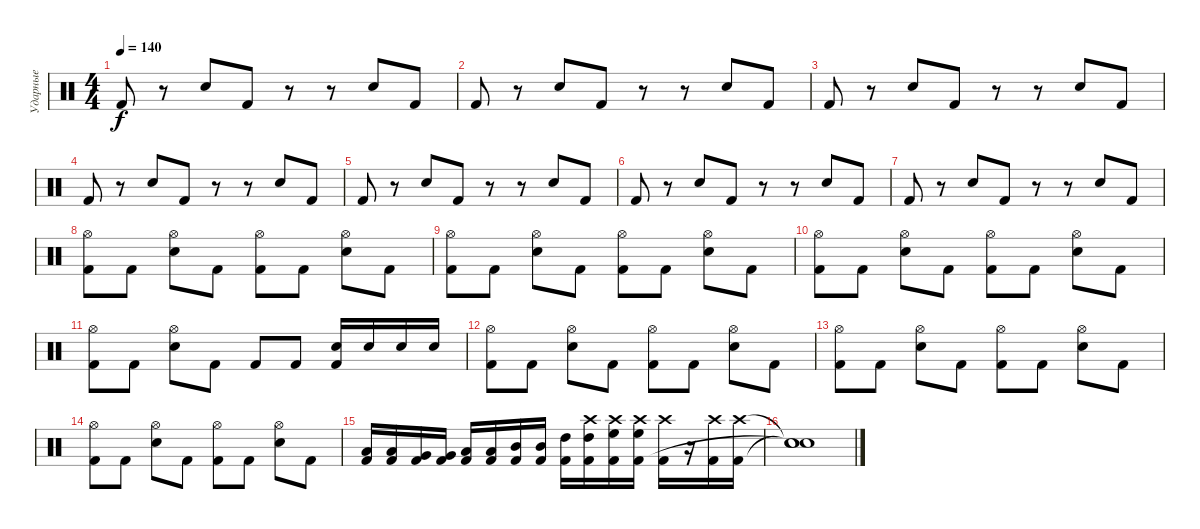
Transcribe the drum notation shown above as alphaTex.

\track ("Ударные" "Ударные") {instrument percussion}
\staff {score}
\articulation defaults
\ts (4 4)
\tempo 140
\clef neutral
\ks c "Kick (hit) 2".8{dy f}
r.8 "Electric Snare (hit)".8 "Kick (hit) 2".8 r.8 r.8 "Electric Snare (hit)".8 "Kick (hit) 2".8 |
"Kick (hit) 2".8 r.8 "Electric Snare (hit)".8 "Kick (hit) 2".8 r.8 r.8 "Electric Snare (hit)".8 "Kick (hit) 2".8 |
"Kick (hit) 2".8 r.8 "Electric Snare (hit)".8 "Kick (hit) 2".8 r.8 r.8 "Electric Snare (hit)".8 "Kick (hit) 2".8 |
"Kick (hit) 2".8 r.8 "Electric Snare (hit)".8 "Kick (hit) 2".8 r.8 r.8 "Electric Snare (hit)".8 "Kick (hit) 2".8 |
"Kick (hit) 2".8 r.8 "Electric Snare (hit)".8 "Kick (hit) 2".8 r.8 r.8 "Electric Snare (hit)".8 "Kick (hit) 2".8 |
"Kick (hit) 2".8 r.8 "Electric Snare (hit)".8 "Kick (hit) 2".8 r.8 r.8 "Electric Snare (hit)".8 "Kick (hit) 2".8 |
"Kick (hit) 2".8 r.8 "Electric Snare (hit)".8 "Kick (hit) 2".8 r.8 r.8 "Electric Snare (hit)".8 "Kick (hit) 2".8 |
("Kick (hit) 2" "Hi-Hat (open)").8 "Kick (hit) 2".8 ("Electric Snare (hit)" "Hi-Hat (open)").8 "Kick (hit) 2".8 ("Kick (hit) 2" "Hi-Hat (open)").8 "Kick (hit) 2".8 ("Electric Snare (hit)" "Hi-Hat (open)").8 "Kick (hit) 2".8 |
("Kick (hit) 2" "Hi-Hat (open)").8 "Kick (hit) 2".8 ("Electric Snare (hit)" "Hi-Hat (open)").8 "Kick (hit) 2".8 ("Kick (hit) 2" "Hi-Hat (open)").8 "Kick (hit) 2".8 ("Electric Snare (hit)" "Hi-Hat (open)").8 "Kick (hit) 2".8 |
("Kick (hit) 2" "Hi-Hat (open)").8 "Kick (hit) 2".8 ("Electric Snare (hit)" "Hi-Hat (open)").8 "Kick (hit) 2".8 ("Kick (hit) 2" "Hi-Hat (open)").8 "Kick (hit) 2".8 ("Electric Snare (hit)" "Hi-Hat (open)").8 "Kick (hit) 2".8 |
("Kick (hit) 2" "Hi-Hat (open)").8 "Kick (hit) 2".8 ("Electric Snare (hit)" "Hi-Hat (open)").8 "Kick (hit) 2".8 "Kick (hit) 2".8 "Kick (hit) 2".8 ("Electric Snare (hit)" "Kick (hit) 2").16 "Electric Snare (hit)".16 "Electric Snare (hit)".16 "Electric Snare (hit)".16 |
("Kick (hit) 2" "Hi-Hat (open)").8 "Kick (hit) 2".8 ("Electric Snare (hit)" "Hi-Hat (open)").8 "Kick (hit) 2".8 ("Kick (hit) 2" "Hi-Hat (open)").8 "Kick (hit) 2".8 ("Electric Snare (hit)" "Hi-Hat (open)").8 "Kick (hit) 2".8 |
("Kick (hit) 2" "Hi-Hat (open)").8 "Kick (hit) 2".8 ("Electric Snare (hit)" "Hi-Hat (open)").8 "Kick (hit) 2".8 ("Kick (hit) 2" "Hi-Hat (open)").8 "Kick (hit) 2".8 ("Electric Snare (hit)" "Hi-Hat (open)").8 "Kick (hit) 2".8 |
("Kick (hit) 2" "Hi-Hat (open)").8 "Kick (hit) 2".8 ("Electric Snare (hit)" "Hi-Hat (open)").8 "Kick (hit) 2".8 ("Kick (hit) 2" "Hi-Hat (open)").8 "Kick (hit) 2".8 ("Electric Snare (hit)" "Hi-Hat (open)").8 "Kick (hit) 2".8 |
("Low Floor Tom (hit)" "Kick (hit) 2").16 ("Low Floor Tom (hit)" "Kick (hit) 2").16 ("Very Low Tom (hit)" "Kick (hit) 2").16 ("Very Low Tom (hit)" "Kick (hit) 2").16 ("Low Tom (hit)" "Kick (hit) 2").16 ("Low Tom (hit)" "Kick (hit) 2").16 ("Mid Tom (hit)" "Kick (hit) 2").16 ("Mid Tom (hit)" "Kick (hit) 2").16 ("High Tom (hit)" "Kick (hit) 2").16 ("Crash high (hit)" "High Tom (hit)" "Kick (hit) 2").16 ("Crash high (hit)" "High Floor Tom (hit)" "Kick (hit) 2").16 ("Crash high (hit)" "High Floor Tom (hit)" "Kick (hit) 2").16 ("Crash high (hit)" "Kick (hit) 2").16 r.16 ("Crash high (hit)" "Kick (hit) 2").16 ("Crash high (hit)" "Kick (hit) 2").16 |
("Snare (hit)"{t} "Snare (hit)"{t} "Snare (hit)"{t}).1
